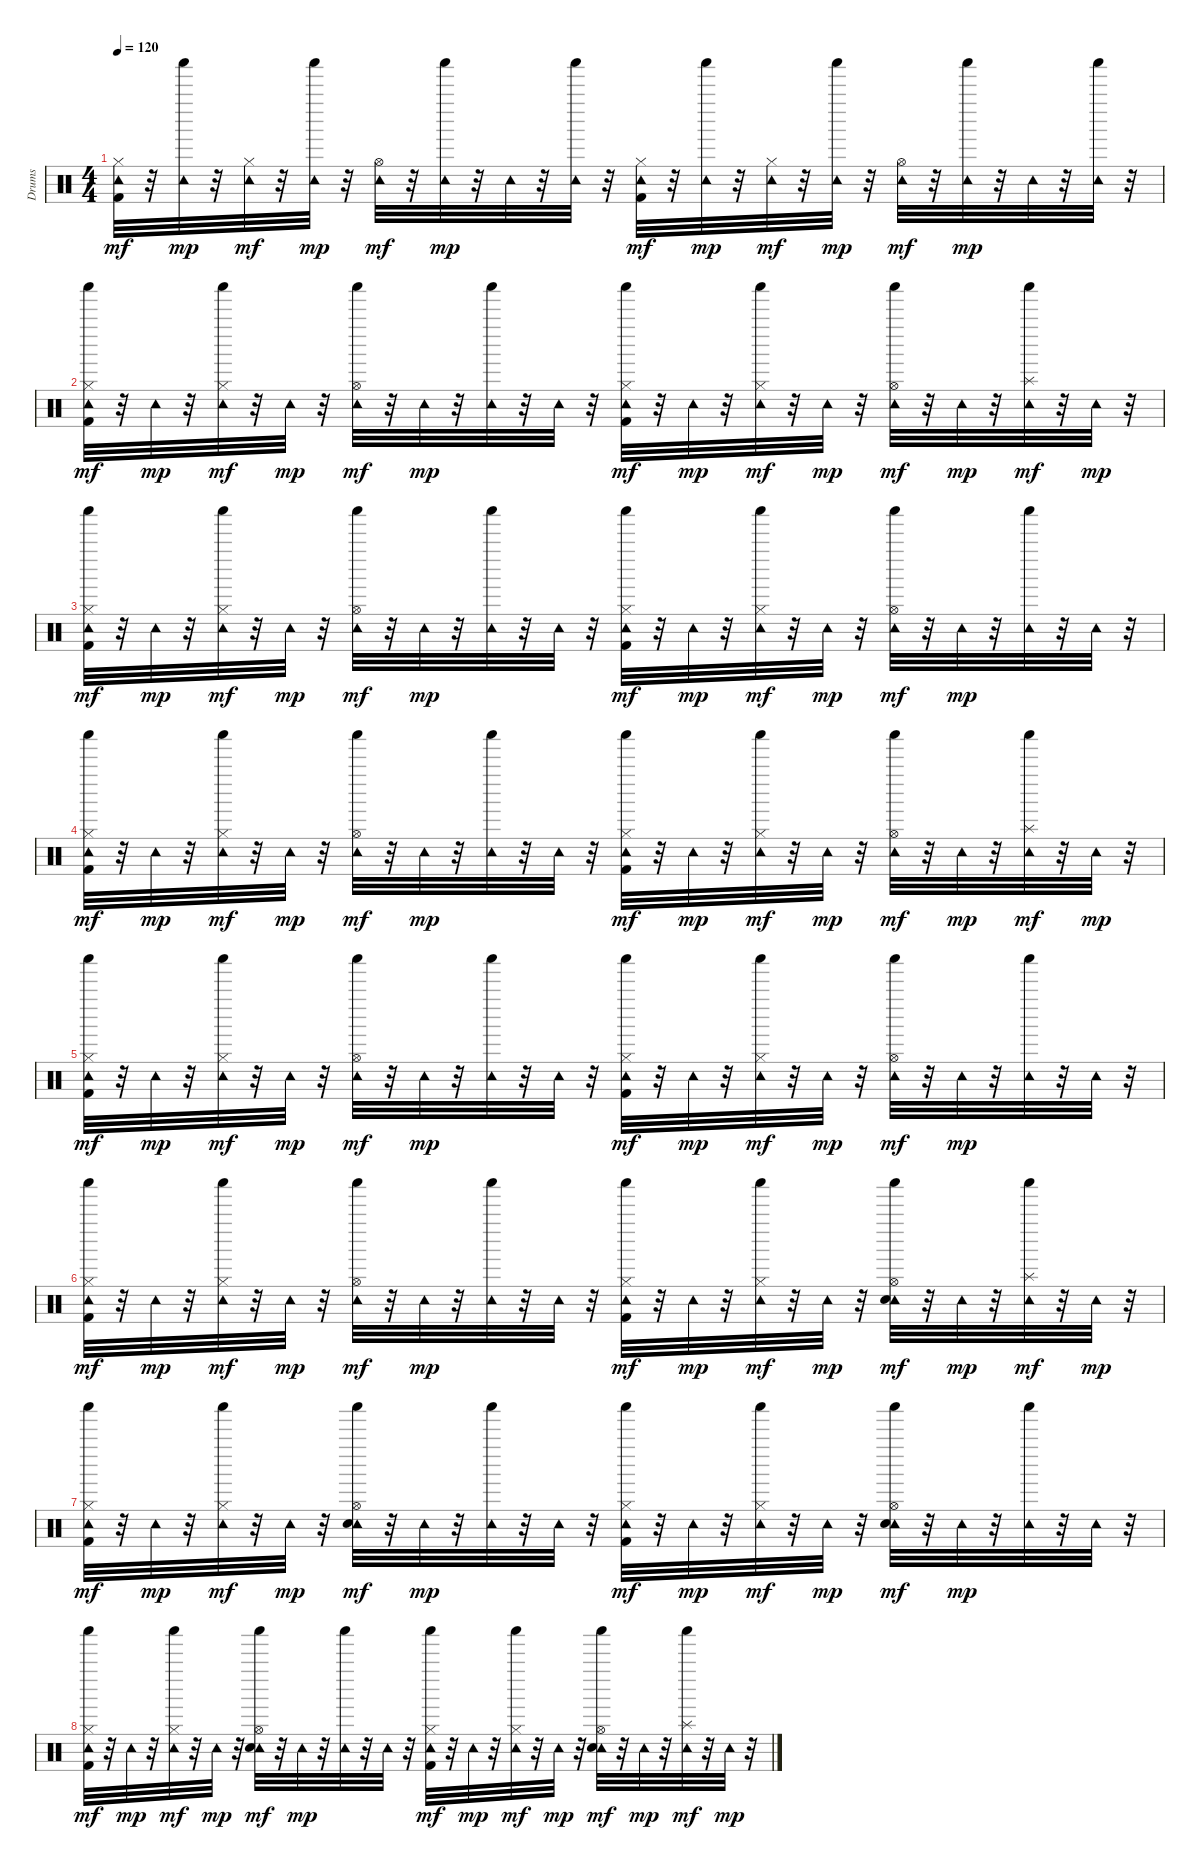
\track ("Drums" "Drums") {instrument percussion}
\staff {score}
\articulation defaults
\ts (4 4)
\tempo 120
\clef neutral
\ks c
("Kick (hit) 2" "Tambourine (hit)" "Hi-Hat (closed)").32{dy mf} r.32 ("Tambourine (hit)" "Shaker (hit)").32{dy mp} r.32 ("Tambourine (hit)" "Hi-Hat (closed)").32{dy mf} r.32 ("Tambourine (hit)" "Shaker (hit)").32{dy mp} r.32 ("Tambourine (hit)" "Hi-Hat (open)").32{dy mf} r.32 ("Tambourine (hit)" "Shaker (hit)").32{dy mp} r.32 "Tambourine (hit)".32 r.32 ("Tambourine (hit)" "Shaker (hit)").32 r.32 ("Kick (hit) 2" "Tambourine (hit)" "Hi-Hat (closed)").32{dy mf} r.32 ("Tambourine (hit)" "Shaker (hit)").32{dy mp} r.32 ("Tambourine (hit)" "Hi-Hat (closed)").32{dy mf} r.32 ("Tambourine (hit)" "Shaker (hit)").32{dy mp} r.32 ("Tambourine (hit)" "Hi-Hat (open)").32{dy mf} r.32 ("Tambourine (hit)" "Shaker (hit)").32{dy mp} r.32 "Tambourine (hit)".32 r.32 ("Tambourine (hit)" "Shaker (hit)").32 r.32 |
("Kick (hit) 2" "Tambourine (hit)" "Shaker (hit)" "Hi-Hat (closed)").32{dy mf} r.32 "Tambourine (hit)".32{dy mp} r.32 ("Tambourine (hit)" "Shaker (hit)" "Hi-Hat (closed)").32{dy mf} r.32 "Tambourine (hit)".32{dy mp} r.32 ("Tambourine (hit)" "Shaker (hit)" "Hi-Hat (open)").32{dy mf} r.32 "Tambourine (hit)".32{dy mp} r.32 ("Tambourine (hit)" "Shaker (hit)").32 r.32 "Tambourine (hit)".32 r.32 ("Kick (hit) 2" "Tambourine (hit)" "Shaker (hit)" "Hi-Hat (closed)").32{dy mf} r.32 "Tambourine (hit)".32{dy mp} r.32 ("Tambourine (hit)" "Shaker (hit)" "Hi-Hat (closed)").32{dy mf} r.32 "Tambourine (hit)".32{dy mp} r.32 ("Tambourine (hit)" "Shaker (hit)" "Hi-Hat (open)").32{dy mf} r.32 "Tambourine (hit)".32{dy mp} r.32 ("Tambourine (hit)" "Shaker (hit)" "Splash (hit)").32{dy mf} r.32 "Tambourine (hit)".32{dy mp} r.32 |
("Kick (hit) 2" "Tambourine (hit)" "Shaker (hit)" "Hi-Hat (closed)").32{dy mf} r.32 "Tambourine (hit)".32{dy mp} r.32 ("Tambourine (hit)" "Shaker (hit)" "Hi-Hat (closed)").32{dy mf} r.32 "Tambourine (hit)".32{dy mp} r.32 ("Tambourine (hit)" "Shaker (hit)" "Hi-Hat (open)").32{dy mf} r.32 "Tambourine (hit)".32{dy mp} r.32 ("Tambourine (hit)" "Shaker (hit)").32 r.32 "Tambourine (hit)".32 r.32 ("Kick (hit) 2" "Tambourine (hit)" "Shaker (hit)" "Hi-Hat (closed)").32{dy mf} r.32 "Tambourine (hit)".32{dy mp} r.32 ("Tambourine (hit)" "Shaker (hit)" "Hi-Hat (closed)").32{dy mf} r.32 "Tambourine (hit)".32{dy mp} r.32 ("Tambourine (hit)" "Shaker (hit)" "Hi-Hat (open)").32{dy mf} r.32 "Tambourine (hit)".32{dy mp} r.32 ("Tambourine (hit)" "Shaker (hit)").32 r.32 "Tambourine (hit)".32 r.32 |
("Kick (hit) 2" "Tambourine (hit)" "Shaker (hit)" "Hi-Hat (closed)").32{dy mf} r.32 "Tambourine (hit)".32{dy mp} r.32 ("Tambourine (hit)" "Shaker (hit)" "Hi-Hat (closed)").32{dy mf} r.32 "Tambourine (hit)".32{dy mp} r.32 ("Tambourine (hit)" "Shaker (hit)" "Hi-Hat (open)").32{dy mf} r.32 "Tambourine (hit)".32{dy mp} r.32 ("Tambourine (hit)" "Shaker (hit)").32 r.32 "Tambourine (hit)".32 r.32 ("Kick (hit) 2" "Tambourine (hit)" "Shaker (hit)" "Hi-Hat (closed)").32{dy mf} r.32 "Tambourine (hit)".32{dy mp} r.32 ("Tambourine (hit)" "Shaker (hit)" "Hi-Hat (closed)").32{dy mf} r.32 "Tambourine (hit)".32{dy mp} r.32 ("Tambourine (hit)" "Shaker (hit)" "Hi-Hat (open)").32{dy mf} r.32 "Tambourine (hit)".32{dy mp} r.32 ("Tambourine (hit)" "Shaker (hit)" "Splash (hit)").32{dy mf} r.32 "Tambourine (hit)".32{dy mp} r.32 |
("Kick (hit) 2" "Tambourine (hit)" "Shaker (hit)" "Hi-Hat (closed)").32{dy mf} r.32 "Tambourine (hit)".32{dy mp} r.32 ("Tambourine (hit)" "Shaker (hit)" "Hi-Hat (closed)").32{dy mf} r.32 "Tambourine (hit)".32{dy mp} r.32 ("Tambourine (hit)" "Shaker (hit)" "Hi-Hat (open)").32{dy mf} r.32 "Tambourine (hit)".32{dy mp} r.32 ("Tambourine (hit)" "Shaker (hit)").32 r.32 "Tambourine (hit)".32 r.32 ("Kick (hit) 2" "Tambourine (hit)" "Shaker (hit)" "Hi-Hat (closed)").32{dy mf} r.32 "Tambourine (hit)".32{dy mp} r.32 ("Tambourine (hit)" "Shaker (hit)" "Hi-Hat (closed)").32{dy mf} r.32 "Tambourine (hit)".32{dy mp} r.32 ("Tambourine (hit)" "Shaker (hit)" "Hi-Hat (open)").32{dy mf} r.32 "Tambourine (hit)".32{dy mp} r.32 ("Tambourine (hit)" "Shaker (hit)").32 r.32 "Tambourine (hit)".32 r.32 |
("Kick (hit) 2" "Tambourine (hit)" "Shaker (hit)" "Hi-Hat (closed)").32{dy mf} r.32 "Tambourine (hit)".32{dy mp} r.32 ("Tambourine (hit)" "Shaker (hit)" "Hi-Hat (closed)").32{dy mf} r.32 "Tambourine (hit)".32{dy mp} r.32 ("Tambourine (hit)" "Shaker (hit)" "Hi-Hat (open)").32{dy mf} r.32 "Tambourine (hit)".32{dy mp} r.32 ("Tambourine (hit)" "Shaker (hit)").32 r.32 "Tambourine (hit)".32 r.32 ("Kick (hit) 2" "Tambourine (hit)" "Shaker (hit)" "Hi-Hat (closed)").32{dy mf} r.32 "Tambourine (hit)".32{dy mp} r.32 ("Tambourine (hit)" "Shaker (hit)" "Hi-Hat (closed)").32{dy mf} r.32 "Tambourine (hit)".32{dy mp} r.32 ("Tambourine (hit)" "Shaker (hit)" "Snare (hit) 2" "Hi-Hat (open)").32{dy mf} r.32 "Tambourine (hit)".32{dy mp} r.32 ("Tambourine (hit)" "Shaker (hit)" "Splash (hit)").32{dy mf} r.32 "Tambourine (hit)".32{dy mp} r.32 |
("Kick (hit) 2" "Tambourine (hit)" "Shaker (hit)" "Hi-Hat (closed)").32{dy mf} r.32 "Tambourine (hit)".32{dy mp} r.32 ("Tambourine (hit)" "Shaker (hit)" "Hi-Hat (closed)").32{dy mf} r.32 "Tambourine (hit)".32{dy mp} r.32 ("Tambourine (hit)" "Shaker (hit)" "Snare (hit) 2" "Hi-Hat (open)").32{dy mf} r.32 "Tambourine (hit)".32{dy mp} r.32 ("Tambourine (hit)" "Shaker (hit)").32 r.32 "Tambourine (hit)".32 r.32 ("Kick (hit) 2" "Tambourine (hit)" "Shaker (hit)" "Hi-Hat (closed)").32{dy mf} r.32 "Tambourine (hit)".32{dy mp} r.32 ("Tambourine (hit)" "Shaker (hit)" "Hi-Hat (closed)").32{dy mf} r.32 "Tambourine (hit)".32{dy mp} r.32 ("Tambourine (hit)" "Shaker (hit)" "Snare (hit) 2" "Hi-Hat (open)").32{dy mf} r.32 "Tambourine (hit)".32{dy mp} r.32 ("Tambourine (hit)" "Shaker (hit)").32 r.32 "Tambourine (hit)".32 r.32 |
("Kick (hit) 2" "Tambourine (hit)" "Shaker (hit)" "Hi-Hat (closed)").32{dy mf} r.32 "Tambourine (hit)".32{dy mp} r.32 ("Tambourine (hit)" "Shaker (hit)" "Hi-Hat (closed)").32{dy mf} r.32 "Tambourine (hit)".32{dy mp} r.32 ("Tambourine (hit)" "Shaker (hit)" "Snare (hit) 2" "Hi-Hat (open)").32{dy mf} r.32 "Tambourine (hit)".32{dy mp} r.32 ("Tambourine (hit)" "Shaker (hit)").32 r.32 "Tambourine (hit)".32 r.32 ("Kick (hit) 2" "Tambourine (hit)" "Shaker (hit)" "Hi-Hat (closed)").32{dy mf} r.32 "Tambourine (hit)".32{dy mp} r.32 ("Tambourine (hit)" "Shaker (hit)" "Hi-Hat (closed)").32{dy mf} r.32 "Tambourine (hit)".32{dy mp} r.32 ("Tambourine (hit)" "Shaker (hit)" "Snare (hit) 2" "Hi-Hat (open)").32{dy mf} r.32 "Tambourine (hit)".32{dy mp} r.32 ("Tambourine (hit)" "Shaker (hit)" "Splash (hit)").32{dy mf} r.32 "Tambourine (hit)".32{dy mp} r.32
